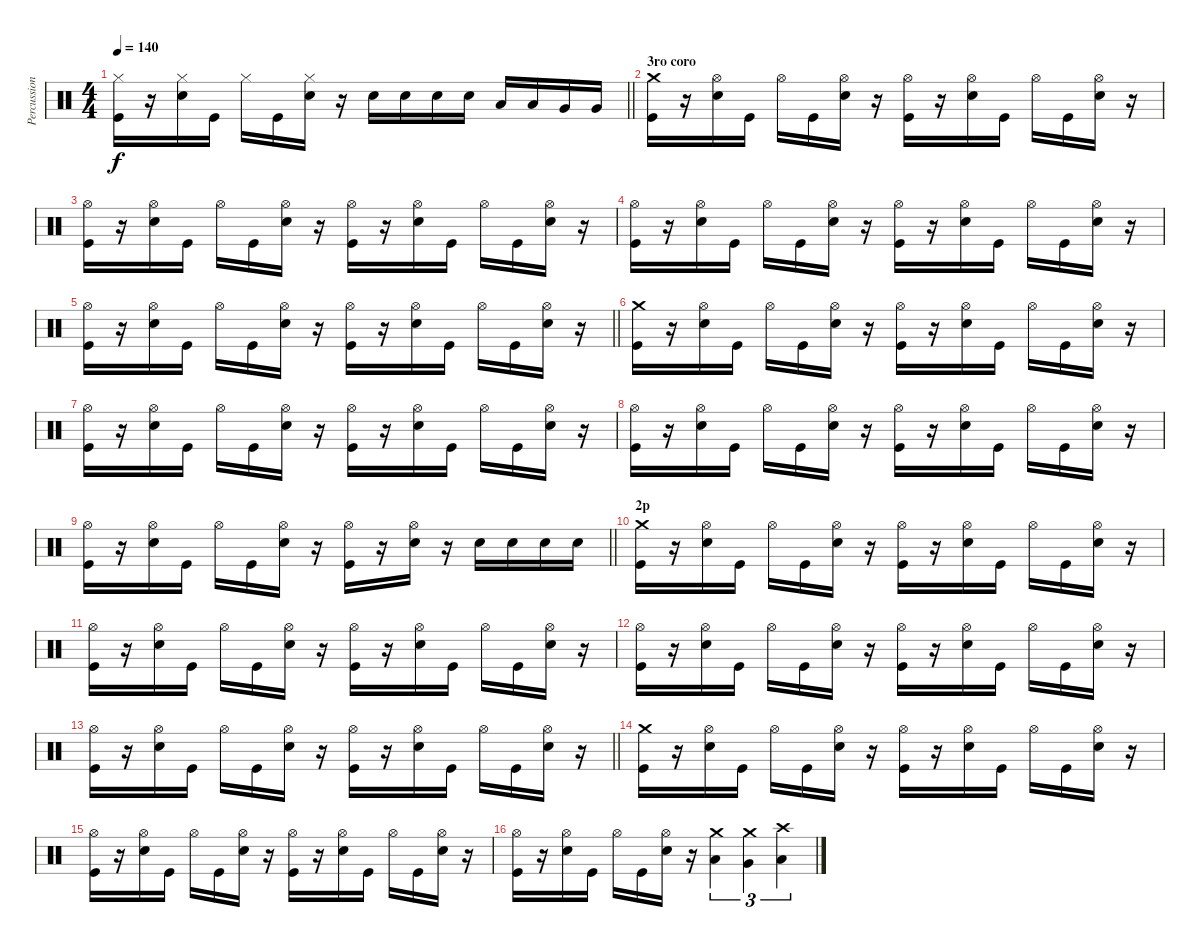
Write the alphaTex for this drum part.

\track ("Percussion" "Percussion") {instrument percussion}
\staff {score}
\articulation defaults
\ts (4 4)
\tempo 140
\clef neutral
\barLineRight lightlight
\ks c
("Hi-Hat (closed)" "Kick (hit)").16{dy f} r.16 ("Hi-Hat (closed)" "Snare (hit) 2").16 "Kick (hit)".16 "Hi-Hat (closed)".16 "Kick (hit)".16 ("Hi-Hat (closed)" "Snare (hit) 2").16 r.16 "Snare (hit) 2".16 "Snare (hit) 2".16 "Snare (hit) 2".16 "Snare (hit) 2".16 "Low Tom (hit)".16 "Low Tom (hit)".16 "Very Low Tom (hit)".16 "Very Low Tom (hit)".16 |
\section ("" "3ro coro")
("Crash medium (hit)" "Kick (hit)").16 r.16 ("Hi-Hat (open)" "Snare (hit) 2").16 "Kick (hit)".16 "Hi-Hat (open)".16 "Kick (hit)".16 ("Hi-Hat (open)" "Snare (hit) 2").16 r.16 ("Hi-Hat (open)" "Kick (hit)").16 r.16 ("Hi-Hat (open)" "Snare (hit) 2").16 "Kick (hit)".16 "Hi-Hat (open)".16 "Kick (hit)".16 ("Hi-Hat (open)" "Snare (hit) 2").16 r.16 |
("Hi-Hat (open)" "Kick (hit)").16 r.16 ("Hi-Hat (open)" "Snare (hit) 2").16 "Kick (hit)".16 "Hi-Hat (open)".16 "Kick (hit)".16 ("Hi-Hat (open)" "Snare (hit) 2").16 r.16 ("Hi-Hat (open)" "Kick (hit)").16 r.16 ("Hi-Hat (open)" "Snare (hit) 2").16 "Kick (hit)".16 "Hi-Hat (open)".16 "Kick (hit)".16 ("Hi-Hat (open)" "Snare (hit) 2").16 r.16 |
("Hi-Hat (open)" "Kick (hit)").16 r.16 ("Hi-Hat (open)" "Snare (hit) 2").16 "Kick (hit)".16 "Hi-Hat (open)".16 "Kick (hit)".16 ("Hi-Hat (open)" "Snare (hit) 2").16 r.16 ("Hi-Hat (open)" "Kick (hit)").16 r.16 ("Hi-Hat (open)" "Snare (hit) 2").16 "Kick (hit)".16 "Hi-Hat (open)".16 "Kick (hit)".16 ("Hi-Hat (open)" "Snare (hit) 2").16 r.16 |
\barLineRight lightlight
("Hi-Hat (open)" "Kick (hit)").16 r.16 ("Hi-Hat (open)" "Snare (hit) 2").16 "Kick (hit)".16 "Hi-Hat (open)".16 "Kick (hit)".16 ("Hi-Hat (open)" "Snare (hit) 2").16 r.16 ("Hi-Hat (open)" "Kick (hit)").16 r.16 ("Hi-Hat (open)" "Snare (hit) 2").16 "Kick (hit)".16 "Hi-Hat (open)".16 "Kick (hit)".16 ("Hi-Hat (open)" "Snare (hit) 2").16 r.16 |
("Crash medium (hit)" "Kick (hit)").16 r.16 ("Hi-Hat (open)" "Snare (hit) 2").16 "Kick (hit)".16 "Hi-Hat (open)".16 "Kick (hit)".16 ("Hi-Hat (open)" "Snare (hit) 2").16 r.16 ("Hi-Hat (open)" "Kick (hit)").16 r.16 ("Hi-Hat (open)" "Snare (hit) 2").16 "Kick (hit)".16 "Hi-Hat (open)".16 "Kick (hit)".16 ("Hi-Hat (open)" "Snare (hit) 2").16 r.16 |
("Hi-Hat (open)" "Kick (hit)").16 r.16 ("Hi-Hat (open)" "Snare (hit) 2").16 "Kick (hit)".16 "Hi-Hat (open)".16 "Kick (hit)".16 ("Hi-Hat (open)" "Snare (hit) 2").16 r.16 ("Hi-Hat (open)" "Kick (hit)").16 r.16 ("Hi-Hat (open)" "Snare (hit) 2").16 "Kick (hit)".16 "Hi-Hat (open)".16 "Kick (hit)".16 ("Hi-Hat (open)" "Snare (hit) 2").16 r.16 |
("Hi-Hat (open)" "Kick (hit)").16 r.16 ("Hi-Hat (open)" "Snare (hit) 2").16 "Kick (hit)".16 "Hi-Hat (open)".16 "Kick (hit)".16 ("Hi-Hat (open)" "Snare (hit) 2").16 r.16 ("Hi-Hat (open)" "Kick (hit)").16 r.16 ("Hi-Hat (open)" "Snare (hit) 2").16 "Kick (hit)".16 "Hi-Hat (open)".16 "Kick (hit)".16 ("Hi-Hat (open)" "Snare (hit) 2").16 r.16 |
\barLineRight lightlight
("Hi-Hat (open)" "Kick (hit)").16 r.16 ("Hi-Hat (open)" "Snare (hit) 2").16 "Kick (hit)".16 "Hi-Hat (open)".16 "Kick (hit)".16 ("Hi-Hat (open)" "Snare (hit) 2").16 r.16 ("Hi-Hat (open)" "Kick (hit)").16 r.16 ("Hi-Hat (open)" "Snare (hit) 2").16 r.16 "Snare (hit) 2".16 "Snare (hit) 2".16 "Snare (hit) 2".16 "Snare (hit) 2".16 |
\section ("" "2p")
("Crash medium (hit)" "Kick (hit)").16 r.16 ("Hi-Hat (open)" "Snare (hit) 2").16 "Kick (hit)".16 "Hi-Hat (open)".16 "Kick (hit)".16 ("Hi-Hat (open)" "Snare (hit) 2").16 r.16 ("Hi-Hat (open)" "Kick (hit)").16 r.16 ("Hi-Hat (open)" "Snare (hit) 2").16 "Kick (hit)".16 "Hi-Hat (open)".16 "Kick (hit)".16 ("Hi-Hat (open)" "Snare (hit) 2").16 r.16 |
("Hi-Hat (open)" "Kick (hit)").16 r.16 ("Hi-Hat (open)" "Snare (hit) 2").16 "Kick (hit)".16 "Hi-Hat (open)".16 "Kick (hit)".16 ("Hi-Hat (open)" "Snare (hit) 2").16 r.16 ("Hi-Hat (open)" "Kick (hit)").16 r.16 ("Hi-Hat (open)" "Snare (hit) 2").16 "Kick (hit)".16 "Hi-Hat (open)".16 "Kick (hit)".16 ("Hi-Hat (open)" "Snare (hit) 2").16 r.16 |
("Hi-Hat (open)" "Kick (hit)").16 r.16 ("Hi-Hat (open)" "Snare (hit) 2").16 "Kick (hit)".16 "Hi-Hat (open)".16 "Kick (hit)".16 ("Hi-Hat (open)" "Snare (hit) 2").16 r.16 ("Hi-Hat (open)" "Kick (hit)").16 r.16 ("Hi-Hat (open)" "Snare (hit) 2").16 "Kick (hit)".16 "Hi-Hat (open)".16 "Kick (hit)".16 ("Hi-Hat (open)" "Snare (hit) 2").16 r.16 |
\barLineRight lightlight
("Hi-Hat (open)" "Kick (hit)").16 r.16 ("Hi-Hat (open)" "Snare (hit) 2").16 "Kick (hit)".16 "Hi-Hat (open)".16 "Kick (hit)".16 ("Hi-Hat (open)" "Snare (hit) 2").16 r.16 ("Hi-Hat (open)" "Kick (hit)").16 r.16 ("Hi-Hat (open)" "Snare (hit) 2").16 "Kick (hit)".16 "Hi-Hat (open)".16 "Kick (hit)".16 ("Hi-Hat (open)" "Snare (hit) 2").16 r.16 |
("Crash medium (hit)" "Kick (hit)").16 r.16 ("Hi-Hat (open)" "Snare (hit) 2").16 "Kick (hit)".16 "Hi-Hat (open)".16 "Kick (hit)".16 ("Hi-Hat (open)" "Snare (hit) 2").16 r.16 ("Hi-Hat (open)" "Kick (hit)").16 r.16 ("Hi-Hat (open)" "Snare (hit) 2").16 "Kick (hit)".16 "Hi-Hat (open)".16 "Kick (hit)".16 ("Hi-Hat (open)" "Snare (hit) 2").16 r.16 |
("Hi-Hat (open)" "Kick (hit)").16 r.16 ("Hi-Hat (open)" "Snare (hit) 2").16 "Kick (hit)".16 "Hi-Hat (open)".16 "Kick (hit)".16 ("Hi-Hat (open)" "Snare (hit) 2").16 r.16 ("Hi-Hat (open)" "Kick (hit)").16 r.16 ("Hi-Hat (open)" "Snare (hit) 2").16 "Kick (hit)".16 "Hi-Hat (open)".16 "Kick (hit)".16 ("Hi-Hat (open)" "Snare (hit) 2").16 r.16 |
("Hi-Hat (open)" "Kick (hit)").16 r.16 ("Hi-Hat (open)" "Snare (hit) 2").16 "Kick (hit)".16 "Hi-Hat (open)".16 "Kick (hit)".16 ("Hi-Hat (open)" "Snare (hit) 2").16 r.16 ("Crash medium (hit)" "Low Tom (hit)").4{tu (3 2)} ("Crash medium (hit)" "Very Low Tom (hit)").4{tu (3 2)} ("Crash high (hit)" "Low Floor Tom (hit)").4{tu (3 2)}
